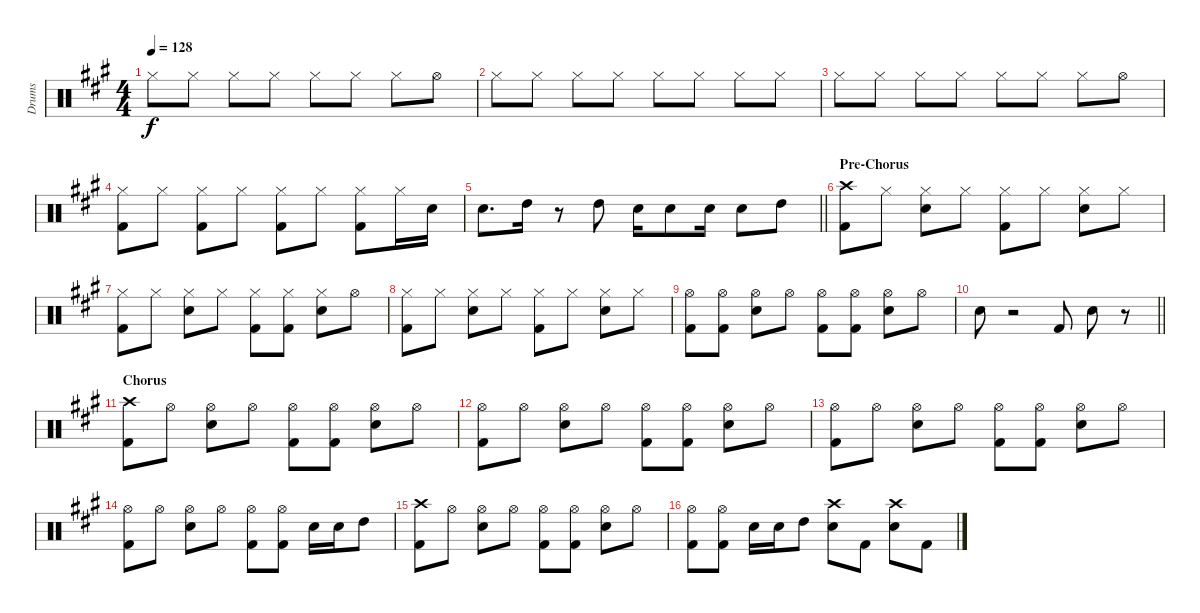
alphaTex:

\track ("Drums" "Drums") {instrument percussion}
\staff {score}
\articulation defaults
\ts (4 4)
\tempo 128
\clef neutral
\ks a "Hi-Hat (closed)".8{dy f} "Hi-Hat (closed)".8 "Hi-Hat (closed)".8 "Hi-Hat (closed)".8 "Hi-Hat (closed)".8 "Hi-Hat (closed)".8 "Hi-Hat (closed)".8 "Hi-Hat (open)".8
|
"Hi-Hat (closed)".8 "Hi-Hat (closed)".8 "Hi-Hat (closed)".8 "Hi-Hat (closed)".8 "Hi-Hat (closed)".8 "Hi-Hat (closed)".8 "Hi-Hat (closed)".8 "Hi-Hat (closed)".8 |
"Hi-Hat (closed)".8 "Hi-Hat (closed)".8 "Hi-Hat (closed)".8 "Hi-Hat (closed)".8 "Hi-Hat (closed)".8 "Hi-Hat (closed)".8 "Hi-Hat (closed)".8 "Hi-Hat (open)".8 |
("Hi-Hat (closed)" "Kick (hit) 2").8 "Hi-Hat (closed)".8 ("Hi-Hat (closed)" "Kick (hit) 2").8 "Hi-Hat (closed)".8 ("Hi-Hat (closed)" "Kick (hit) 2").8 "Hi-Hat (closed)".8 ("Hi-Hat (closed)" "Kick (hit) 2").8 "Hi-Hat (closed)".16 "Snare (hit) 2".16 |
\barLineRight lightlight "Snare (hit) 2".8{d} "High Tom (hit)".16
r.8 "High Tom (hit)".8 "Snare (hit) 2".16 "Snare (hit) 2".8 "Snare (hit) 2".16 "Snare (hit) 2".8 "High Tom (hit)".8 |
\section ("" "Pre-Chorus")
("Crash high (hit)" "Kick (hit) 2").8 "Hi-Hat (closed)".8 ("Hi-Hat (closed)" "Snare (hit) 2").8 "Hi-Hat (closed)".8 ("Hi-Hat (closed)" "Kick (hit) 2").8 "Hi-Hat (closed)".8 ("Hi-Hat (closed)" "Snare (hit) 2").8 "Hi-Hat (closed)".8 |
("Hi-Hat (closed)" "Kick (hit) 2").8 "Hi-Hat (closed)".8 ("Hi-Hat (closed)" "Snare (hit) 2").8 "Hi-Hat (closed)".8 ("Hi-Hat (closed)" "Kick (hit) 2").8 ("Hi-Hat (closed)" "Kick (hit) 2").8 ("Hi-Hat (closed)" "Snare (hit) 2").8 "Hi-Hat (open)".8 |
("Hi-Hat (closed)" "Kick (hit) 2").8 "Hi-Hat (closed)".8 ("Hi-Hat (closed)" "Snare (hit) 2").8 "Hi-Hat (closed)".8 ("Hi-Hat (closed)" "Kick (hit) 2").8 "Hi-Hat (closed)".8 ("Hi-Hat (closed)" "Snare (hit) 2").8 "Hi-Hat (closed)".8 |
("Hi-Hat (open)" "Kick (hit) 2").8 ("Hi-Hat (open)" "Kick (hit) 2").8 ("Hi-Hat (open)" "Snare (hit) 2").8 "Hi-Hat (open)".8 ("Hi-Hat (open)" "Kick (hit) 2").8 ("Hi-Hat (open)" "Kick (hit) 2").8 ("Hi-Hat (open)" "Snare (hit) 2").8 "Hi-Hat (open)".8 |
\barLineRight lightlight "Snare (hit) 2".8
r.2 "Kick (hit) 2".8 "Snare (hit) 2".8 r.8 |
\section ("" "Chorus")
("Crash high (hit)" "Kick (hit) 2").8 "Hi-Hat (open)".8 ("Hi-Hat (open)" "Snare (hit) 2").8 "Hi-Hat (open)".8 ("Hi-Hat (open)" "Kick (hit) 2").8 ("Hi-Hat (open)" "Kick (hit) 2").8 ("Hi-Hat (open)" "Snare (hit) 2").8 "Hi-Hat (open)".8 |
("Hi-Hat (open)" "Kick (hit) 2").8 "Hi-Hat (open)".8 ("Hi-Hat (open)" "Snare (hit) 2").8 "Hi-Hat (open)".8 ("Hi-Hat (open)" "Kick (hit) 2").8 ("Hi-Hat (open)" "Kick (hit) 2").8 ("Hi-Hat (open)" "Snare (hit) 2").8 "Hi-Hat (open)".8 |
("Hi-Hat (open)" "Kick (hit) 2").8 "Hi-Hat (open)".8 ("Hi-Hat (open)" "Snare (hit) 2").8 "Hi-Hat (open)".8 ("Hi-Hat (open)" "Kick (hit) 2").8 ("Hi-Hat (open)" "Kick (hit) 2").8 ("Hi-Hat (open)" "Snare (hit) 2").8 "Hi-Hat (open)".8 |
("Hi-Hat (open)" "Kick (hit) 2").8 "Hi-Hat (open)".8 ("Hi-Hat (open)" "Snare (hit) 2").8 "Hi-Hat (open)".8 ("Hi-Hat (open)" "Kick (hit) 2").8 ("Hi-Hat (open)" "Kick (hit) 2").8 "Snare (hit) 2".16 "Snare (hit) 2".16 "High Tom (hit)".8 |
("Crash high (hit)" "Kick (hit) 2").8 "Hi-Hat (open)".8 ("Hi-Hat (open)" "Snare (hit) 2").8 "Hi-Hat (open)".8 ("Hi-Hat (open)" "Kick (hit) 2").8 ("Hi-Hat (open)" "Kick (hit) 2").8 ("Hi-Hat (open)" "Snare (hit) 2").8 "Hi-Hat (open)".8 |
("Hi-Hat (open)" "Kick (hit) 2").8 ("Hi-Hat (open)" "Kick (hit) 2").8 "Snare (hit) 2".16 "Snare (hit) 2".16 "High Tom (hit)".8 ("Crash high (hit)" "Snare (hit) 2").8 "Kick (hit) 2".8 ("Crash high (hit)" "Snare (hit) 2").8 "Kick (hit) 2".8
